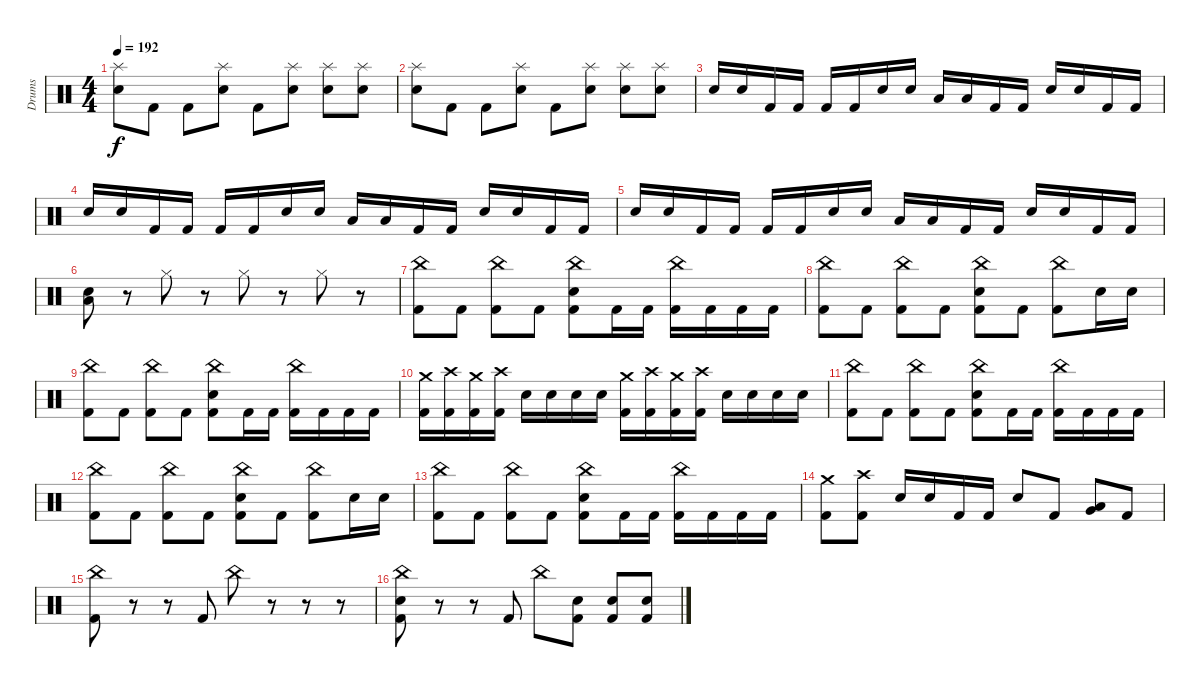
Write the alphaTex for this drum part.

\track ("Drums" "Drums") {instrument percussion}
\staff {score}
\articulation defaults
\ts (4 4)
\tempo 192
\clef neutral
\ks c
("Splash (hit)" "Electric Snare (hit)").8{dy f} "Kick (hit) 2".8 "Kick (hit) 2".8 ("Splash (hit)" "Electric Snare (hit)").8 "Kick (hit) 2".8 ("Splash (hit)" "Electric Snare (hit)").8 ("Splash (hit)" "Electric Snare (hit)").8 ("Splash (hit)" "Electric Snare (hit)").8 |
("Splash (hit)" "Electric Snare (hit)").8 "Kick (hit) 2".8 "Kick (hit) 2".8 ("Splash (hit)" "Electric Snare (hit)").8 "Kick (hit) 2".8 ("Splash (hit)" "Electric Snare (hit)").8 ("Splash (hit)" "Electric Snare (hit)").8 ("Splash (hit)" "Electric Snare (hit)").8 |
"Electric Snare (hit)".16 "Electric Snare (hit)".16 "Kick (hit) 2".16 "Kick (hit) 2".16 "Kick (hit) 2".16 "Kick (hit) 2".16 "Electric Snare (hit)".16 "Electric Snare (hit)".16 "Low Tom (hit)".16 "Low Tom (hit)".16 "Kick (hit) 2".16 "Kick (hit) 2".16 "Electric Snare (hit)".16 "Electric Snare (hit)".16 "Kick (hit) 2".16 "Kick (hit) 2".16 |
"Electric Snare (hit)".16 "Electric Snare (hit)".16 "Kick (hit) 2".16 "Kick (hit) 2".16 "Kick (hit) 2".16 "Kick (hit) 2".16 "Electric Snare (hit)".16 "Electric Snare (hit)".16 "Low Tom (hit)".16 "Low Tom (hit)".16 "Kick (hit) 2".16 "Kick (hit) 2".16 "Electric Snare (hit)".16 "Electric Snare (hit)".16 "Kick (hit) 2".16 "Kick (hit) 2".16 |
"Electric Snare (hit)".16 "Electric Snare (hit)".16 "Kick (hit) 2".16 "Kick (hit) 2".16 "Kick (hit) 2".16 "Kick (hit) 2".16 "Electric Snare (hit)".16 "Electric Snare (hit)".16 "Low Tom (hit)".16 "Low Tom (hit)".16 "Kick (hit) 2".16 "Kick (hit) 2".16 "Electric Snare (hit)".16 "Electric Snare (hit)".16 "Kick (hit) 2".16 "Kick (hit) 2".16 |
("Low Floor Tom (hit)" "Electric Snare (hit)").8 r.8 "Hi-Hat (closed)".8 r.8 "Hi-Hat (closed)".8 r.8 "Hi-Hat (closed)".8 r.8 |
("China (hit)" "Kick (hit) 2").8 "Kick (hit) 2".8 ("China (hit)" "Kick (hit) 2").8 "Kick (hit) 2".8 ("China (hit)" "Electric Snare (hit)" "Kick (hit) 2").8 "Kick (hit) 2".16 "Kick (hit) 2".16 ("China (hit)" "Kick (hit) 2").16 "Kick (hit) 2".16 "Kick (hit) 2".16 "Kick (hit) 2".16 |
("China (hit)" "Kick (hit) 2").8 "Kick (hit) 2".8 ("China (hit)" "Kick (hit) 2").8 "Kick (hit) 2".8 ("China (hit)" "Electric Snare (hit)" "Kick (hit) 2").8 "Kick (hit) 2".8 ("China (hit)" "Kick (hit) 2").8 "Electric Snare (hit)".16 "Electric Snare (hit)".16 |
("China (hit)" "Kick (hit) 2").8 "Kick (hit) 2".8 ("China (hit)" "Kick (hit) 2").8 "Kick (hit) 2".8 ("China (hit)" "Electric Snare (hit)" "Kick (hit) 2").8 "Kick (hit) 2".16 "Kick (hit) 2".16 ("China (hit)" "Kick (hit) 2").16 "Kick (hit) 2".16 "Kick (hit) 2".16 "Kick (hit) 2".16 |
("Crash medium (hit)" "Kick (hit) 2").16 ("Crash high (hit)" "Kick (hit) 2").16 ("Crash medium (hit)" "Kick (hit) 2").16 ("Crash high (hit)" "Kick (hit) 2").16 "Electric Snare (hit)".16 "Electric Snare (hit)".16 "Electric Snare (hit)".16 "Electric Snare (hit)".16 ("Crash medium (hit)" "Kick (hit) 2").16 ("Crash high (hit)" "Kick (hit) 2").16 ("Crash medium (hit)" "Kick (hit) 2").16 ("Crash high (hit)" "Kick (hit) 2").16 "Electric Snare (hit)".16 "Electric Snare (hit)".16 "Electric Snare (hit)".16 "Electric Snare (hit)".16 |
("China (hit)" "Kick (hit) 2").8 "Kick (hit) 2".8 ("China (hit)" "Kick (hit) 2").8 "Kick (hit) 2".8 ("China (hit)" "Electric Snare (hit)" "Kick (hit) 2").8 "Kick (hit) 2".16 "Kick (hit) 2".16 ("China (hit)" "Kick (hit) 2").16 "Kick (hit) 2".16 "Kick (hit) 2".16 "Kick (hit) 2".16 |
("China (hit)" "Kick (hit) 2").8 "Kick (hit) 2".8 ("China (hit)" "Kick (hit) 2").8 "Kick (hit) 2".8 ("China (hit)" "Electric Snare (hit)" "Kick (hit) 2").8 "Kick (hit) 2".8 ("China (hit)" "Kick (hit) 2").8 "Electric Snare (hit)".16 "Electric Snare (hit)".16 |
("China (hit)" "Kick (hit) 2").8 "Kick (hit) 2".8 ("China (hit)" "Kick (hit) 2").8 "Kick (hit) 2".8 ("China (hit)" "Electric Snare (hit)" "Kick (hit) 2").8 "Kick (hit) 2".16 "Kick (hit) 2".16 ("China (hit)" "Kick (hit) 2").16 "Kick (hit) 2".16 "Kick (hit) 2".16 "Kick (hit) 2".16 |
("Crash medium (hit)" "Kick (hit) 2").8 ("Crash high (hit)" "Kick (hit) 2").8 "Electric Snare (hit)".16 "Electric Snare (hit)".16 "Kick (hit) 2".16 "Kick (hit) 2".16 "Electric Snare (hit)".8 "Kick (hit) 2".8 ("Very Low Tom (hit)" "Low Tom (hit)").8 "Kick (hit) 2".8 |
("China (hit)" "Kick (hit) 2").8 r.8 r.8 "Kick (hit) 2".8 "China (hit)".8 r.8 r.8 r.8 |
("China (hit)" "Electric Snare (hit)" "Kick (hit) 2").8 r.8 r.8 "Kick (hit) 2".8 "China (hit)".8 ("Electric Snare (hit)" "Kick (hit) 2").8 ("Electric Snare (hit)" "Kick (hit) 2").8 ("Electric Snare (hit)" "Kick (hit) 2").8
